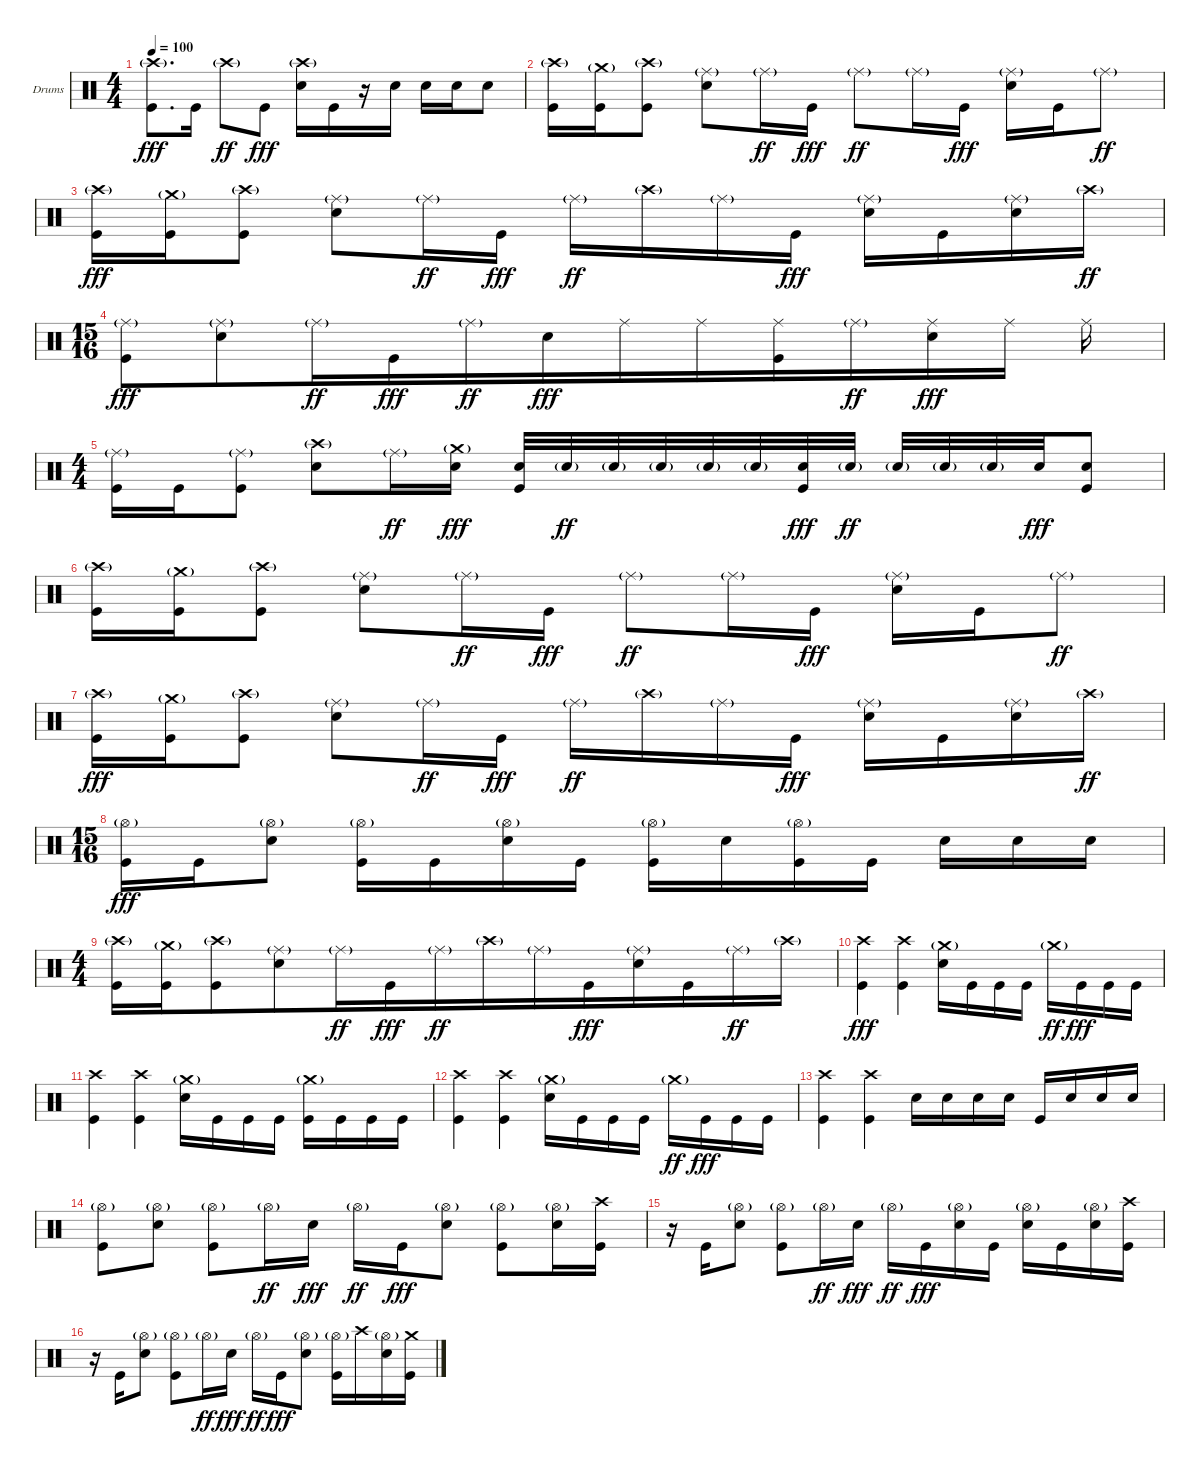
\bracketExtendMode groupsimilarinstruments
\firstSystemTrackNameOrientation horizontal
\otherSystemsTrackNameOrientation horizontal
\track ("Drumkit" "Drums") {instrument percussion}
\staff {score}
\articulation defaults
\ts (4 4)
\beaming (8 2 2 2 2)
\tempo 100
\clef neutral
\ks c
("Crash high (hit)"{g} "Kick (hit)").8{d dy fff} "Kick (hit)".16 "Crash high (hit)"{g}.8{dy ff} "Kick (hit)".8{dy fff} ("Crash high (hit)"{g} "Snare (hit) 2").16 "Kick (hit)".16 r.16 "Snare (hit) 2".16 "Snare (hit) 2".16 "Snare (hit) 2".16 "Snare (hit) 2".8 |
("Crash high (hit)"{g} "Kick (hit)").16 ("Crash medium (hit)"{g} "Kick (hit)").16 ("Crash high (hit)"{g} "Kick (hit)").8 ("Ride (middle)"{g} "Snare (hit) 2").8 "Ride (middle)"{g}.16{dy ff} "Kick (hit)".16{dy fff} "Ride (middle)"{g}.8{dy ff} "Ride (middle)"{g}.16 "Kick (hit)".16{dy fff} ("Ride (middle)"{g} "Snare (hit) 2").16 "Kick (hit)".16 "Ride (middle)"{g}.8{dy ff} |
("Crash high (hit)"{g} "Kick (hit)").16{dy fff} ("Crash medium (hit)"{g} "Kick (hit)").16 ("Crash high (hit)"{g} "Kick (hit)").8 ("Ride (middle)"{g} "Snare (hit) 2").8 "Ride (middle)"{g}.16{dy ff} "Kick (hit)".16{dy fff} "Ride (middle)"{g}.16{dy ff} "Crash high (hit)"{g}.16 "Ride (middle)"{g}.16 "Kick (hit)".16{dy fff} ("Ride (middle)"{g} "Snare (hit) 2").16 "Kick (hit)".16 ("Ride (middle)"{g} "Snare (hit) 2").16 "Crash high (hit)"{g}.16{dy ff} |
\ts (15 16)
\beaming (8 7)
("Ride (middle)"{g} "Kick (hit)").8{dy fff} ("Ride (middle)"{g} "Snare (hit) 2").8 "Ride (middle)"{g}.16{dy ff} "Kick (hit)".16{dy fff} "Ride (middle)"{g}.16{dy ff} "Snare (hit) 2".16{dy fff} "Ride (middle)".16 "Ride (middle)".16 ("Ride (middle)" "Kick (hit)").16 "Ride (middle)"{g}.16{dy ff} ("Ride (middle)" "Snare (hit) 2").16{dy fff} "Ride (middle)".16 "Ride (middle)".16 |
\ts (4 4)
\beaming (8 2 2 2 2)
("Ride (middle)"{g} "Kick (hit)").16 "Kick (hit)".16 ("Ride (middle)"{g} "Kick (hit)").8 ("Crash high (hit)"{g} "Snare (hit) 2").8 "Ride (middle)"{g}.16{dy ff} ("Crash medium (hit)"{g} "Snare (hit) 2").16{dy fff} ("Snare (hit) 2" "Kick (hit)").32 "Snare (hit) 2"{g}.32{dy ff} "Snare (hit) 2"{g}.32 "Snare (hit) 2"{g}.32 "Snare (hit) 2"{g}.32 "Snare (hit) 2"{g}.32 ("Snare (hit) 2" "Kick (hit)").32{dy fff} "Snare (hit) 2"{g}.32{dy ff} "Snare (hit) 2"{g}.32 "Snare (hit) 2"{g}.32 "Snare (hit) 2"{g}.32 "Snare (hit) 2".32{dy fff} ("Snare (hit) 2" "Kick (hit)").8 |
("Crash high (hit)"{g} "Kick (hit)").16 ("Crash medium (hit)"{g} "Kick (hit)").16 ("Crash high (hit)"{g} "Kick (hit)").8 ("Ride (middle)"{g} "Snare (hit) 2").8 "Ride (middle)"{g}.16{dy ff} "Kick (hit)".16{dy fff} "Ride (middle)"{g}.8{dy ff} "Ride (middle)"{g}.16 "Kick (hit)".16{dy fff} ("Ride (middle)"{g} "Snare (hit) 2").16 "Kick (hit)".16 "Ride (middle)"{g}.8{dy ff} |
("Crash high (hit)"{g} "Kick (hit)").16{dy fff} ("Crash medium (hit)"{g} "Kick (hit)").16 ("Crash high (hit)"{g} "Kick (hit)").8 ("Ride (middle)"{g} "Snare (hit) 2").8 "Ride (middle)"{g}.16{dy ff} "Kick (hit)".16{dy fff} "Ride (middle)"{g}.16{dy ff} "Crash high (hit)"{g}.16 "Ride (middle)"{g}.16 "Kick (hit)".16{dy fff} ("Ride (middle)"{g} "Snare (hit) 2").16 "Kick (hit)".16 ("Ride (middle)"{g} "Snare (hit) 2").16 "Crash high (hit)"{g}.16{dy ff} |
\ts (15 16)
\beaming (8 2 2 2 2)
("Hi-Hat (open)"{g} "Kick (hit)").16{dy fff} "Kick (hit)".16 ("Hi-Hat (open)"{g} "Snare (hit) 2").8 ("Hi-Hat (open)"{g} "Kick (hit)").16 "Kick (hit)".16 ("Hi-Hat (open)"{g} "Snare (hit) 2").16 "Kick (hit)".16 ("Hi-Hat (open)"{g} "Kick (hit)").16 "Snare (hit) 2".16 ("Hi-Hat (open)"{g} "Kick (hit)").16 "Kick (hit)".16 "Snare (hit) 2".16 "Snare (hit) 2".16 "Snare (hit) 2".16 |
\ts (4 4)
\beaming (8 8)
("Crash high (hit)"{g} "Kick (hit)").16 ("Crash medium (hit)"{g} "Kick (hit)").16 ("Crash high (hit)"{g} "Kick (hit)").8 ("Ride (middle)"{g} "Snare (hit) 2").8 "Ride (middle)"{g}.16{dy ff} "Kick (hit)".16{dy fff} "Ride (middle)"{g}.16{dy ff} "Crash high (hit)"{g}.16 "Ride (middle)"{g}.16 "Kick (hit)".16{dy fff} ("Ride (middle)"{g} "Snare (hit) 2").16 "Kick (hit)".16 "Ride (middle)"{g}.16{dy ff} "Crash high (hit)"{g}.16 |
\beaming (8 2 2 2 2)
("Crash high (hit)" "Kick (hit)").4{dy fff} ("Crash high (hit)" "Kick (hit)").4 ("Crash medium (hit)"{g} "Snare (hit) 2").16 "Kick (hit)".16 "Kick (hit)".16 "Kick (hit)".16 "Crash medium (hit)"{g}.16{dy ff} "Kick (hit)".16{dy fff} "Kick (hit)".16 "Kick (hit)".16 |
("Crash high (hit)" "Kick (hit)").4 ("Crash high (hit)" "Kick (hit)").4 ("Crash medium (hit)"{g} "Snare (hit) 2").16 "Kick (hit)".16 "Kick (hit)".16 "Kick (hit)".16 ("Crash medium (hit)"{g} "Kick (hit)").16 "Kick (hit)".16 "Kick (hit)".16 "Kick (hit)".16 |
("Crash high (hit)" "Kick (hit)").4 ("Crash high (hit)" "Kick (hit)").4 ("Crash medium (hit)"{g} "Snare (hit) 2").16 "Kick (hit)".16 "Kick (hit)".16 "Kick (hit)".16 "Crash medium (hit)"{g}.16{dy ff} "Kick (hit)".16{dy fff} "Kick (hit)".16 "Kick (hit)".16 |
("Crash high (hit)" "Kick (hit)").4 ("Crash high (hit)" "Kick (hit)").4 "Snare (hit) 2".16 "Snare (hit) 2".16 "Snare (hit) 2".16 "Snare (hit) 2".16 "Kick (hit)".16 "Snare (hit) 2".16 "Snare (hit) 2".16 "Snare (hit) 2".16 |
("Hi-Hat (open)"{g} "Kick (hit)").8 ("Hi-Hat (open)"{g} "Snare (hit) 2").8 ("Hi-Hat (open)"{g} "Kick (hit)").8 "Hi-Hat (open)"{g}.16{dy ff} "Snare (hit) 2".16{dy fff} "Hi-Hat (open)"{g}.16{dy ff} "Kick (hit)".16{dy fff} ("Hi-Hat (open)"{g} "Snare (hit) 2").8 ("Hi-Hat (open)"{g} "Kick (hit)").8 ("Hi-Hat (open)"{g} "Snare (hit) 2").16 ("Crash high (hit)" "Kick (hit)").16 |
r.16 "Kick (hit)".16 ("Hi-Hat (open)"{g} "Snare (hit) 2").8 ("Hi-Hat (open)"{g} "Kick (hit)").8 "Hi-Hat (open)"{g}.16{dy ff} "Snare (hit) 2".16{dy fff} "Hi-Hat (open)"{g}.16{dy ff} "Kick (hit)".16{dy fff} ("Hi-Hat (open)"{g} "Snare (hit) 2").16 "Kick (hit)".16 ("Hi-Hat (open)"{g} "Snare (hit) 2").16 "Kick (hit)".16 ("Hi-Hat (open)"{g} "Snare (hit) 2").16 ("Crash high (hit)" "Kick (hit)").16 |
r.16 "Kick (hit)".16 ("Hi-Hat (open)"{g} "Snare (hit) 2").8 ("Hi-Hat (open)"{g} "Kick (hit)").8 "Hi-Hat (open)"{g}.16{dy ff} "Snare (hit) 2".16{dy fff} "Hi-Hat (open)"{g}.16{dy ff} "Kick (hit)".16{dy fff} ("Hi-Hat (open)"{g} "Snare (hit) 2").8 ("Hi-Hat (open)"{g} "Kick (hit)").16 "Crash high (hit)".16 ("Hi-Hat (open)"{g} "Snare (hit) 2").16 ("Crash medium (hit)" "Kick (hit)").16
